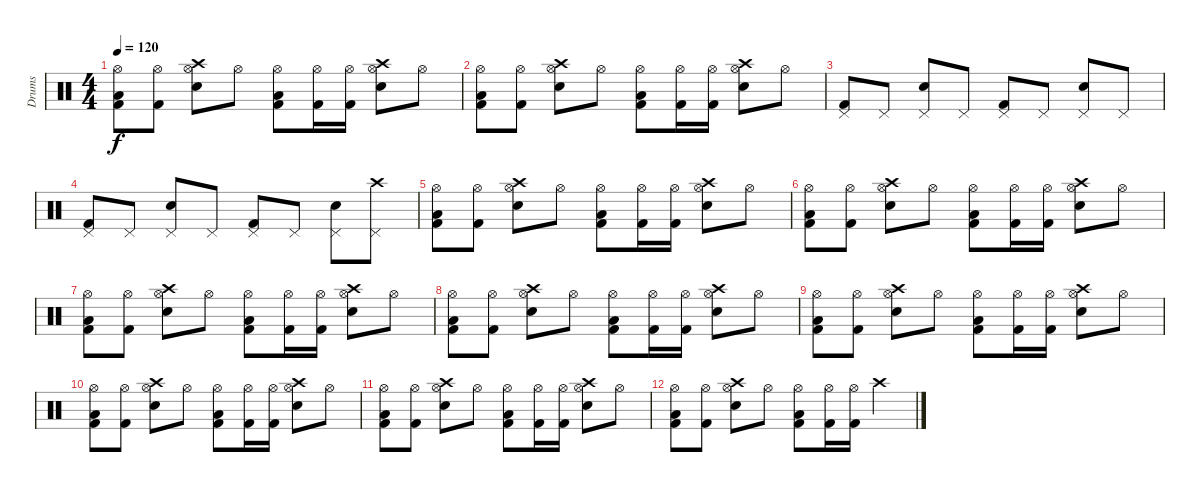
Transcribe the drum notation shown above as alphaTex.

\track ("Drums" "Drums") {instrument percussion}
\staff {score}
\articulation defaults
\ts (4 4)
\tempo 120
\clef neutral
\ks c
("Hi-Hat (open)" "Low Tom (hit)" "Kick (hit) 2").8{dy f} ("Hi-Hat (open)" "Kick (hit) 2").8 ("Hi-Hat (open)" "Crash high (hit)" "Snare (hit) 2").8 "Hi-Hat (open)".8 ("Hi-Hat (open)" "Low Tom (hit)" "Kick (hit) 2").8 ("Hi-Hat (open)" "Kick (hit) 2").16 ("Hi-Hat (open)" "Kick (hit) 2").16 ("Hi-Hat (open)" "Crash high (hit)" "Snare (hit) 2").8 "Hi-Hat (open)".8 |
("Hi-Hat (open)" "Low Tom (hit)" "Kick (hit) 2").8 ("Hi-Hat (open)" "Kick (hit) 2").8 ("Hi-Hat (open)" "Crash high (hit)" "Snare (hit) 2").8 "Hi-Hat (open)".8 ("Hi-Hat (open)" "Low Tom (hit)" "Kick (hit) 2").8 ("Hi-Hat (open)" "Kick (hit) 2").16 ("Hi-Hat (open)" "Kick (hit) 2").16 ("Hi-Hat (open)" "Crash high (hit)" "Snare (hit) 2").8 "Hi-Hat (open)".8 |
("Pedal Hi-Hat (hit)" "Kick (hit) 2").8 "Pedal Hi-Hat (hit)".8 ("Pedal Hi-Hat (hit)" "Snare (hit) 2").8 "Pedal Hi-Hat (hit)".8 ("Pedal Hi-Hat (hit)" "Kick (hit) 2").8 "Pedal Hi-Hat (hit)".8 ("Pedal Hi-Hat (hit)" "Snare (hit) 2").8 "Pedal Hi-Hat (hit)".8 |
("Pedal Hi-Hat (hit)" "Kick (hit) 2").8 "Pedal Hi-Hat (hit)".8 ("Pedal Hi-Hat (hit)" "Snare (hit) 2").8 "Pedal Hi-Hat (hit)".8 ("Pedal Hi-Hat (hit)" "Kick (hit) 2").8 "Pedal Hi-Hat (hit)".8 ("Pedal Hi-Hat (hit)" "Snare (hit) 2").8 ("Pedal Hi-Hat (hit)" "Crash high (hit)").8 |
("Hi-Hat (open)" "Low Tom (hit)" "Kick (hit) 2").8 ("Hi-Hat (open)" "Kick (hit) 2").8 ("Hi-Hat (open)" "Crash high (hit)" "Snare (hit) 2").8 "Hi-Hat (open)".8 ("Hi-Hat (open)" "Low Tom (hit)" "Kick (hit) 2").8 ("Hi-Hat (open)" "Kick (hit) 2").16 ("Hi-Hat (open)" "Kick (hit) 2").16 ("Hi-Hat (open)" "Crash high (hit)" "Snare (hit) 2").8 "Hi-Hat (open)".8 |
("Hi-Hat (open)" "Low Tom (hit)" "Kick (hit) 2").8 ("Hi-Hat (open)" "Kick (hit) 2").8 ("Hi-Hat (open)" "Crash high (hit)" "Snare (hit) 2").8 "Hi-Hat (open)".8 ("Hi-Hat (open)" "Low Tom (hit)" "Kick (hit) 2").8 ("Hi-Hat (open)" "Kick (hit) 2").16 ("Hi-Hat (open)" "Kick (hit) 2").16 ("Hi-Hat (open)" "Crash high (hit)" "Snare (hit) 2").8 "Hi-Hat (open)".8 |
("Hi-Hat (open)" "Low Tom (hit)" "Kick (hit) 2").8 ("Hi-Hat (open)" "Kick (hit) 2").8 ("Hi-Hat (open)" "Crash high (hit)" "Snare (hit) 2").8 "Hi-Hat (open)".8 ("Hi-Hat (open)" "Low Tom (hit)" "Kick (hit) 2").8 ("Hi-Hat (open)" "Kick (hit) 2").16 ("Hi-Hat (open)" "Kick (hit) 2").16 ("Hi-Hat (open)" "Crash high (hit)" "Snare (hit) 2").8 "Hi-Hat (open)".8 |
("Hi-Hat (open)" "Low Tom (hit)" "Kick (hit) 2").8 ("Hi-Hat (open)" "Kick (hit) 2").8 ("Hi-Hat (open)" "Crash high (hit)" "Snare (hit) 2").8 "Hi-Hat (open)".8 ("Hi-Hat (open)" "Low Tom (hit)" "Kick (hit) 2").8 ("Hi-Hat (open)" "Kick (hit) 2").16 ("Hi-Hat (open)" "Kick (hit) 2").16 ("Hi-Hat (open)" "Crash high (hit)" "Snare (hit) 2").8 "Hi-Hat (open)".8 |
("Hi-Hat (open)" "Low Tom (hit)" "Kick (hit) 2").8 ("Hi-Hat (open)" "Kick (hit) 2").8 ("Hi-Hat (open)" "Crash high (hit)" "Snare (hit) 2").8 "Hi-Hat (open)".8 ("Hi-Hat (open)" "Low Tom (hit)" "Kick (hit) 2").8 ("Hi-Hat (open)" "Kick (hit) 2").16 ("Hi-Hat (open)" "Kick (hit) 2").16 ("Hi-Hat (open)" "Crash high (hit)" "Snare (hit) 2").8 "Hi-Hat (open)".8 |
("Hi-Hat (open)" "Low Tom (hit)" "Kick (hit) 2").8 ("Hi-Hat (open)" "Kick (hit) 2").8 ("Hi-Hat (open)" "Crash high (hit)" "Snare (hit) 2").8 "Hi-Hat (open)".8 ("Hi-Hat (open)" "Low Tom (hit)" "Kick (hit) 2").8 ("Hi-Hat (open)" "Kick (hit) 2").16 ("Hi-Hat (open)" "Kick (hit) 2").16 ("Hi-Hat (open)" "Crash high (hit)" "Snare (hit) 2").8 "Hi-Hat (open)".8 |
("Hi-Hat (open)" "Low Tom (hit)" "Kick (hit) 2").8 ("Hi-Hat (open)" "Kick (hit) 2").8 ("Hi-Hat (open)" "Crash high (hit)" "Snare (hit) 2").8 "Hi-Hat (open)".8 ("Hi-Hat (open)" "Low Tom (hit)" "Kick (hit) 2").8 ("Hi-Hat (open)" "Kick (hit) 2").16 ("Hi-Hat (open)" "Kick (hit) 2").16 ("Hi-Hat (open)" "Crash high (hit)" "Snare (hit) 2").8 "Hi-Hat (open)".8 |
("Hi-Hat (open)" "Low Tom (hit)" "Kick (hit) 2").8 ("Hi-Hat (open)" "Kick (hit) 2").8 ("Hi-Hat (open)" "Crash high (hit)" "Snare (hit) 2").8 "Hi-Hat (open)".8 ("Hi-Hat (open)" "Low Tom (hit)" "Kick (hit) 2").8 ("Hi-Hat (open)" "Kick (hit) 2").16 ("Hi-Hat (open)" "Kick (hit) 2").16 "Crash high (hit)".4
